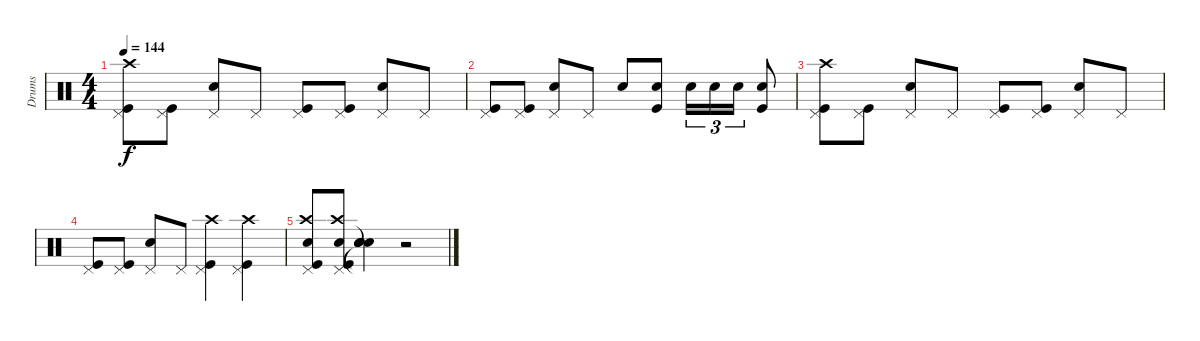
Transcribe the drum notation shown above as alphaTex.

\track ("Drums" "Drums") {instrument percussion}
\staff {score}
\articulation defaults
\ts (4 4)
\tempo 144
\clef neutral
\ks c
("Pedal Hi-Hat (hit)" "Kick (hit)" "Crash high (hit)").8{dy f} ("Pedal Hi-Hat (hit)" "Kick (hit)").8 ("Pedal Hi-Hat (hit)" "Snare (hit) 2").8 "Pedal Hi-Hat (hit)".8 ("Pedal Hi-Hat (hit)" "Kick (hit)").8 ("Pedal Hi-Hat (hit)" "Kick (hit)").8 ("Pedal Hi-Hat (hit)" "Snare (hit) 2").8 "Pedal Hi-Hat (hit)".8 |
("Pedal Hi-Hat (hit)" "Kick (hit)").8 ("Pedal Hi-Hat (hit)" "Kick (hit)").8 ("Pedal Hi-Hat (hit)" "Snare (hit) 2").8 "Pedal Hi-Hat (hit)".8 "Snare (hit) 2".8 ("Snare (hit) 2" "Kick (hit)").8 "Snare (hit) 2".16{tu (3 2)} "Snare (hit) 2".16{tu (3 2)} "Snare (hit) 2".16{tu (3 2)} ("Snare (hit) 2" "Kick (hit)").8 |
("Pedal Hi-Hat (hit)" "Kick (hit)" "Crash high (hit)").8 ("Pedal Hi-Hat (hit)" "Kick (hit)").8 ("Pedal Hi-Hat (hit)" "Snare (hit) 2").8 "Pedal Hi-Hat (hit)".8 ("Pedal Hi-Hat (hit)" "Kick (hit)").8 ("Pedal Hi-Hat (hit)" "Kick (hit)").8 ("Pedal Hi-Hat (hit)" "Snare (hit) 2").8 "Pedal Hi-Hat (hit)".8 |
("Pedal Hi-Hat (hit)" "Kick (hit)").8 ("Pedal Hi-Hat (hit)" "Kick (hit)").8 ("Pedal Hi-Hat (hit)" "Snare (hit) 2").8 "Pedal Hi-Hat (hit)".8 ("Pedal Hi-Hat (hit)" "Crash high (hit)" "Kick (hit)").4 ("Pedal Hi-Hat (hit)" "Crash high (hit)" "Kick (hit)").4 |
("Crash high (hit)" "Kick (hit)" "Snare (hit) 2" "Pedal Hi-Hat (hit)").8 ("Crash high (hit)" "Kick (hit)" "Snare (hit) 2" "Pedal Hi-Hat (hit)").8 ("Snare (hit)"{t} "Snare (hit)"{t} "Snare (hit)"{t} "Snare (hit)"{t}).4 r.2
